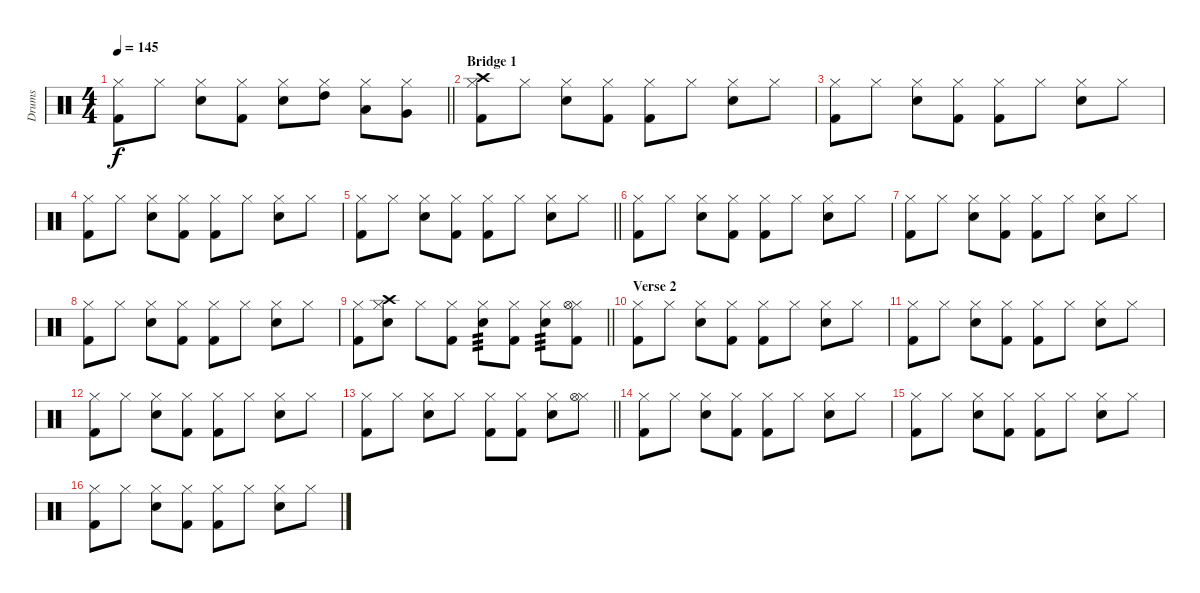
\track ("Drums" "Drums") {instrument percussion}
\staff {score}
\articulation defaults
\ts (4 4)
\tempo 145
\clef neutral
\barLineRight lightlight
\ks c
("Kick (hit) 2" "Hi-Hat (closed)").8{dy f} "Hi-Hat (closed)".8 ("Snare (hit) 2" "Hi-Hat (closed)").8 ("Kick (hit) 2" "Hi-Hat (closed)").8 ("Snare (hit) 2" "Hi-Hat (closed)").8 ("High Tom (hit)" "Hi-Hat (closed)").8 ("Low Tom (hit)" "Hi-Hat (closed)").8 ("Very Low Tom (hit)" "Hi-Hat (closed)").8 |
\section ("" "Bridge 1")
("Kick (hit) 2" "Hi-Hat (closed)" "Crash high (hit)").8 "Hi-Hat (closed)".8 ("Snare (hit) 2" "Hi-Hat (closed)").8 ("Kick (hit) 2" "Hi-Hat (closed)").8 ("Kick (hit) 2" "Hi-Hat (closed)").8 "Hi-Hat (closed)".8 ("Snare (hit) 2" "Hi-Hat (closed)").8 "Hi-Hat (closed)".8 |
("Kick (hit) 2" "Hi-Hat (closed)").8 "Hi-Hat (closed)".8 ("Snare (hit) 2" "Hi-Hat (closed)").8 ("Kick (hit) 2" "Hi-Hat (closed)").8 ("Kick (hit) 2" "Hi-Hat (closed)").8 "Hi-Hat (closed)".8 ("Snare (hit) 2" "Hi-Hat (closed)").8 "Hi-Hat (closed)".8 |
("Kick (hit) 2" "Hi-Hat (closed)").8 "Hi-Hat (closed)".8 ("Snare (hit) 2" "Hi-Hat (closed)").8 ("Kick (hit) 2" "Hi-Hat (closed)").8 ("Kick (hit) 2" "Hi-Hat (closed)").8 "Hi-Hat (closed)".8 ("Snare (hit) 2" "Hi-Hat (closed)").8 "Hi-Hat (closed)".8 |
\barLineRight lightlight
("Kick (hit) 2" "Hi-Hat (closed)").8 "Hi-Hat (closed)".8 ("Snare (hit) 2" "Hi-Hat (closed)").8 ("Kick (hit) 2" "Hi-Hat (closed)").8 ("Kick (hit) 2" "Hi-Hat (closed)").8 "Hi-Hat (closed)".8 ("Snare (hit) 2" "Hi-Hat (closed)").8 "Hi-Hat (closed)".8 |
("Kick (hit) 2" "Hi-Hat (closed)").8 "Hi-Hat (closed)".8 ("Snare (hit) 2" "Hi-Hat (closed)").8 ("Kick (hit) 2" "Hi-Hat (closed)").8 ("Kick (hit) 2" "Hi-Hat (closed)").8 "Hi-Hat (closed)".8 ("Snare (hit) 2" "Hi-Hat (closed)").8 "Hi-Hat (closed)".8 |
("Kick (hit) 2" "Hi-Hat (closed)").8 "Hi-Hat (closed)".8 ("Snare (hit) 2" "Hi-Hat (closed)").8 ("Kick (hit) 2" "Hi-Hat (closed)").8 ("Kick (hit) 2" "Hi-Hat (closed)").8 "Hi-Hat (closed)".8 ("Snare (hit) 2" "Hi-Hat (closed)").8 "Hi-Hat (closed)".8 |
("Kick (hit) 2" "Hi-Hat (closed)").8 "Hi-Hat (closed)".8 ("Snare (hit) 2" "Hi-Hat (closed)").8 ("Kick (hit) 2" "Hi-Hat (closed)").8 ("Kick (hit) 2" "Hi-Hat (closed)").8 "Hi-Hat (closed)".8 ("Snare (hit) 2" "Hi-Hat (closed)").8 "Hi-Hat (closed)".8 |
\barLineRight lightlight
("Kick (hit) 2" "Hi-Hat (closed)").8 ("Snare (hit) 2" "Hi-Hat (closed)" "Crash high (hit)").8 "Hi-Hat (closed)".8 ("Kick (hit) 2" "Hi-Hat (closed)").8 ("Snare (hit) 2" "Hi-Hat (closed)").8{tp 3} ("Kick (hit) 2" "Hi-Hat (closed)").8 ("Snare (hit) 2" "Hi-Hat (closed)").8{tp 3} ("Kick (hit) 2" "Hi-Hat (closed)" "Hi-Hat (open)").8 |
\section ("" "Verse 2")
("Kick (hit) 2" "Hi-Hat (closed)").8 "Hi-Hat (closed)".8 ("Snare (hit) 2" "Hi-Hat (closed)").8 ("Kick (hit) 2" "Hi-Hat (closed)").8 ("Kick (hit) 2" "Hi-Hat (closed)").8 "Hi-Hat (closed)".8 ("Snare (hit) 2" "Hi-Hat (closed)").8 "Hi-Hat (closed)".8 |
("Kick (hit) 2" "Hi-Hat (closed)").8 "Hi-Hat (closed)".8 ("Snare (hit) 2" "Hi-Hat (closed)").8 ("Kick (hit) 2" "Hi-Hat (closed)").8 ("Kick (hit) 2" "Hi-Hat (closed)").8 "Hi-Hat (closed)".8 ("Snare (hit) 2" "Hi-Hat (closed)").8 "Hi-Hat (closed)".8 |
("Kick (hit) 2" "Hi-Hat (closed)").8 "Hi-Hat (closed)".8 ("Snare (hit) 2" "Hi-Hat (closed)").8 ("Kick (hit) 2" "Hi-Hat (closed)").8 ("Kick (hit) 2" "Hi-Hat (closed)").8 "Hi-Hat (closed)".8 ("Snare (hit) 2" "Hi-Hat (closed)").8 "Hi-Hat (closed)".8 |
\barLineRight lightlight
("Kick (hit) 2" "Hi-Hat (closed)").8 "Hi-Hat (closed)".8 ("Snare (hit) 2" "Hi-Hat (closed)").8 "Hi-Hat (closed)".8 ("Kick (hit) 2" "Hi-Hat (closed)").8 ("Kick (hit) 2" "Hi-Hat (closed)").8 ("Snare (hit) 2" "Hi-Hat (closed)").8 ("Hi-Hat (closed)" "Hi-Hat (open)").8 |
("Kick (hit) 2" "Hi-Hat (closed)").8 "Hi-Hat (closed)".8 ("Snare (hit) 2" "Hi-Hat (closed)").8 ("Kick (hit) 2" "Hi-Hat (closed)").8 ("Kick (hit) 2" "Hi-Hat (closed)").8 "Hi-Hat (closed)".8 ("Snare (hit) 2" "Hi-Hat (closed)").8 "Hi-Hat (closed)".8 |
("Kick (hit) 2" "Hi-Hat (closed)").8 "Hi-Hat (closed)".8 ("Snare (hit) 2" "Hi-Hat (closed)").8 ("Kick (hit) 2" "Hi-Hat (closed)").8 ("Kick (hit) 2" "Hi-Hat (closed)").8 "Hi-Hat (closed)".8 ("Snare (hit) 2" "Hi-Hat (closed)").8 "Hi-Hat (closed)".8 |
("Kick (hit) 2" "Hi-Hat (closed)").8 "Hi-Hat (closed)".8 ("Snare (hit) 2" "Hi-Hat (closed)").8 ("Kick (hit) 2" "Hi-Hat (closed)").8 ("Kick (hit) 2" "Hi-Hat (closed)").8 "Hi-Hat (closed)".8 ("Snare (hit) 2" "Hi-Hat (closed)").8 "Hi-Hat (closed)".8
